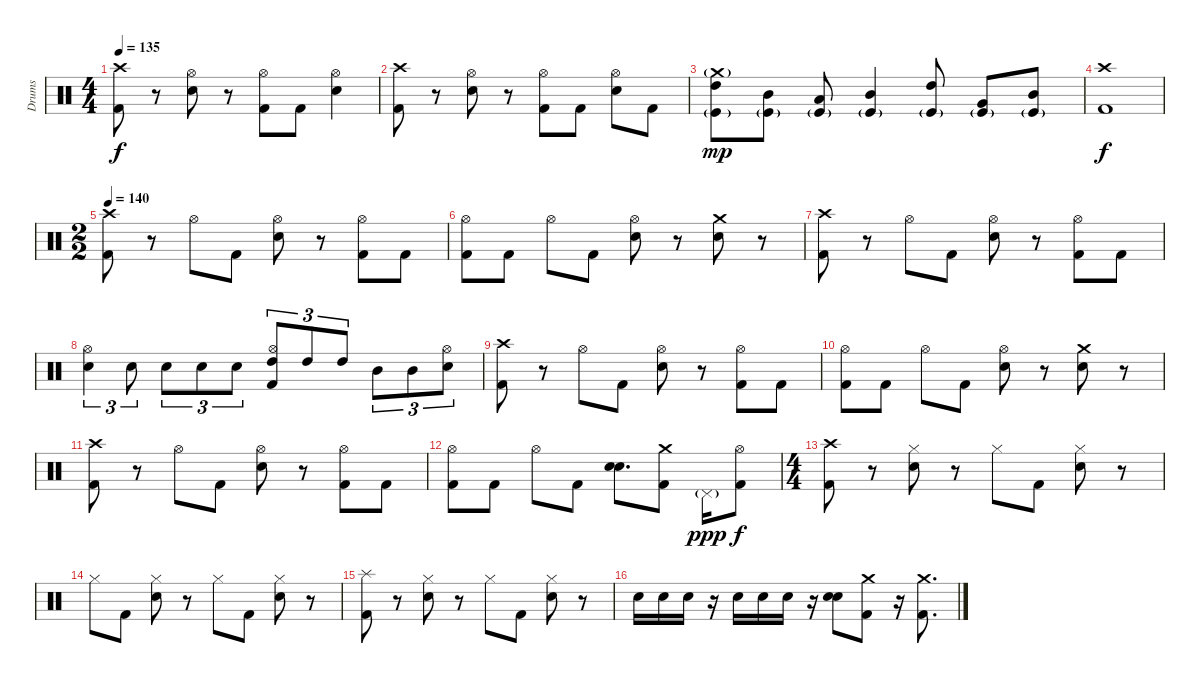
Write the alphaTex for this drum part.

\track ("Drums" "Drums") {instrument percussion}
\staff {score}
\articulation defaults
\ts (4 4)
\tempo 135
\clef neutral
\ks c
("Crash high (hit)" "Kick (hit) 2").8{dy f} r.8 ("Hi-Hat (open)" "Snare (hit) 2").8 r.8 ("Hi-Hat (open)" "Kick (hit) 2").8 "Kick (hit) 2".8 ("Hi-Hat (open)" "Snare (hit) 2").4 |
("Crash high (hit)" "Kick (hit) 2").8 r.8 ("Hi-Hat (open)" "Snare (hit) 2").8 r.8 ("Hi-Hat (open)" "Kick (hit) 2").8 "Kick (hit) 2".8 ("Hi-Hat (open)" "Snare (hit) 2").8 "Kick (hit) 2".8 |
("Crash medium (hit)"{g} "High Tom (hit)" "Kick (hit)"{g}).8{dy mp} ("Mid Tom (hit)" "Kick (hit)"{g}).8 ("Low Tom (hit)" "Kick (hit)"{g}).8 ("Mid Tom (hit)" "Kick (hit)"{g}).4 ("High Tom (hit)" "Kick (hit)"{g}).8 ("Very Low Tom (hit)" "Kick (hit)"{g}).8 ("Mid Tom (hit)" "Kick (hit)"{g}).8 |
("Crash high (hit)" "Kick (hit) 2").1{dy f} |
\ts (2 2)
\tempo 140
("Crash high (hit)" "Kick (hit) 2").8 r.8 "Hi-Hat (open)".8 "Kick (hit) 2".8 ("Hi-Hat (open)" "Snare (hit) 2").8 r.8 ("Hi-Hat (open)" "Kick (hit) 2").8 "Kick (hit) 2".8 |
("Hi-Hat (open)" "Kick (hit) 2").8 "Kick (hit) 2".8 "Hi-Hat (open)".8 "Kick (hit) 2".8 ("Hi-Hat (open)" "Snare (hit) 2").8 r.8 ("Crash medium (hit)" "Snare (hit) 2").8 r.8 |
("Crash high (hit)" "Kick (hit) 2").8 r.8 "Hi-Hat (open)".8 "Kick (hit) 2".8 ("Hi-Hat (open)" "Snare (hit) 2").8 r.8 ("Hi-Hat (open)" "Kick (hit) 2").8 "Kick (hit) 2".8 |
("Hi-Hat (open)" "Snare (hit) 2").4{tu (3 2)} "Snare (hit) 2".8{tu (3 2)} "Snare (hit) 2".8{tu (3 2)} "Snare (hit) 2".8{tu (3 2)} "Snare (hit) 2".8{tu (3 2)} ("Hi-Hat (open)" "High Tom (hit)" "Kick (hit) 2").8{tu (3 2)} "High Tom (hit)".8{tu (3 2)} "High Tom (hit)".8{tu (3 2)} "Mid Tom (hit)".8{tu (3 2)} "Mid Tom (hit)".8{tu (3 2)} ("Hi-Hat (open)" "Snare (hit) 2").8{tu (3 2)} |
("Crash high (hit)" "Kick (hit) 2").8 r.8 "Hi-Hat (open)".8 "Kick (hit) 2".8 ("Hi-Hat (open)" "Snare (hit) 2").8 r.8 ("Hi-Hat (open)" "Kick (hit) 2").8 "Kick (hit) 2".8 |
("Hi-Hat (open)" "Kick (hit) 2").8 "Kick (hit) 2".8 "Hi-Hat (open)".8 "Kick (hit) 2".8 ("Hi-Hat (open)" "Snare (hit) 2").8 r.8 ("Crash medium (hit)" "Snare (hit) 2").8 r.8 |
("Crash high (hit)" "Kick (hit) 2").8 r.8 "Hi-Hat (open)".8 "Kick (hit) 2".8 ("Hi-Hat (open)" "Snare (hit) 2").8 r.8 ("Hi-Hat (open)" "Kick (hit) 2").8 "Kick (hit) 2".8 |
("Hi-Hat (open)" "Kick (hit) 2").8 "Kick (hit) 2".8 "Hi-Hat (open)".8 "Kick (hit) 2".8 ("Snare (hit) 2" "Snare (hit) 2").8{d bd 240} ("Crash medium (hit)" "Kick (hit) 2").8 "Pedal Hi-Hat (hit)"{g}.16{dy ppp} ("Hi-Hat (open)" "Kick (hit) 2").8{dy f} |
\ts (4 4)
("Crash high (hit)" "Kick (hit) 2").8 r.8 ("Hi-Hat (closed)" "Snare (hit) 2").8 r.8 "Hi-Hat (closed)".8 "Kick (hit) 2".8 ("Hi-Hat (closed)" "Snare (hit) 2").8 r.8 |
"Hi-Hat (closed)".8 "Kick (hit) 2".8 ("Hi-Hat (closed)" "Snare (hit) 2").8 r.8 "Hi-Hat (closed)".8 "Kick (hit) 2".8 ("Hi-Hat (closed)" "Snare (hit) 2").8 r.8 |
("Splash (hit)" "Kick (hit) 2").8 r.8 ("Hi-Hat (closed)" "Snare (hit) 2").8 r.8 "Hi-Hat (closed)".8 "Kick (hit) 2".8 ("Hi-Hat (closed)" "Snare (hit) 2").8 r.8 |
"Snare (hit) 2".16 "Snare (hit) 2".16 "Snare (hit) 2".16 r.16 "Snare (hit) 2".16 "Snare (hit) 2".16 "Snare (hit) 2".16 r.16 ("Snare (hit) 2" "Snare (hit) 2").8{bd 480} ("Crash medium (hit)" "Kick (hit) 2").8 r.16 ("Crash medium (hit)" "Kick (hit) 2").8{d}
